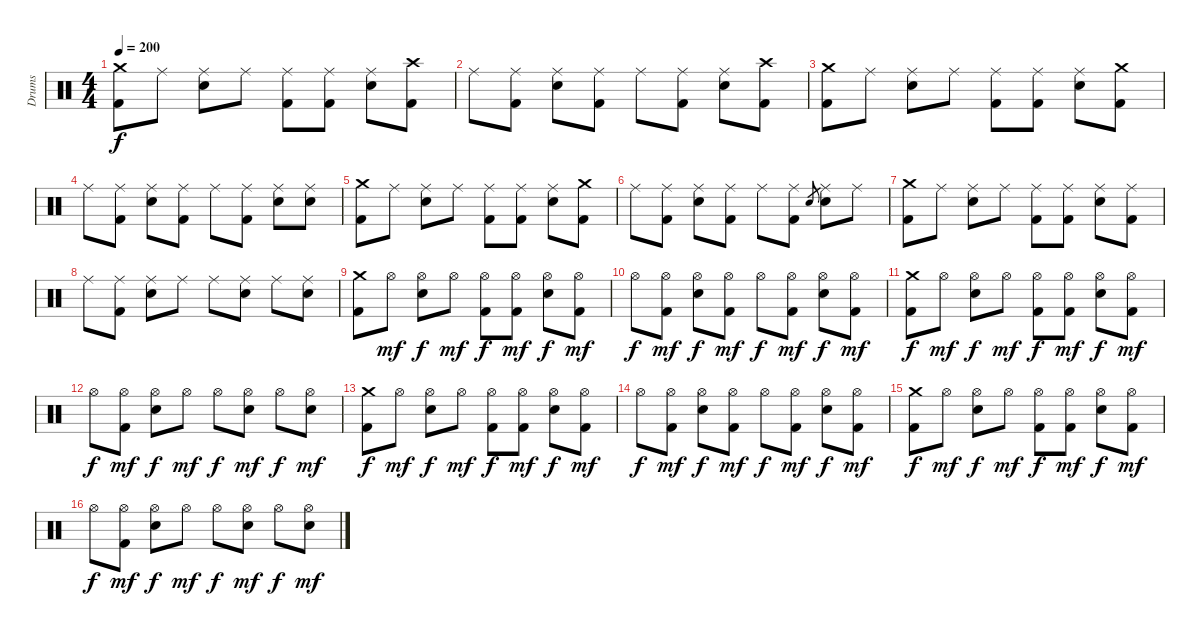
\track ("Drums" "Drums") {instrument percussion}
\staff {score}
\articulation defaults
\ts (4 4)
\tempo 200
\clef neutral
\ks c
("Crash medium (hit)" "Kick (hit) 2").8{dy f} "Ride (middle)".8 ("Ride (middle)" "Electric Snare (hit)").8 "Ride (middle)".8 ("Ride (middle)" "Kick (hit) 2").8 ("Ride (middle)" "Kick (hit) 2").8 ("Ride (middle)" "Electric Snare (hit)").8 ("Crash high (hit)" "Kick (hit) 2").8 |
"Ride (middle)".8 ("Ride (middle)" "Kick (hit) 2").8 ("Ride (middle)" "Electric Snare (hit)").8 ("Ride (middle)" "Kick (hit) 2").8 "Ride (middle)".8 ("Ride (middle)" "Kick (hit) 2").8 ("Ride (middle)" "Electric Snare (hit)").8 ("Crash high (hit)" "Kick (hit) 2").8 |
("Crash medium (hit)" "Kick (hit) 2").8 "Ride (middle)".8 ("Ride (middle)" "Electric Snare (hit)").8 "Ride (middle)".8 ("Ride (middle)" "Kick (hit) 2").8 ("Ride (middle)" "Kick (hit) 2").8 ("Ride (middle)" "Electric Snare (hit)").8 ("Crash medium (hit)" "Kick (hit) 2").8 |
"Ride (middle)".8 ("Ride (middle)" "Kick (hit) 2").8 ("Ride (middle)" "Electric Snare (hit)").8 ("Ride (middle)" "Kick (hit) 2").8 "Ride (middle)".8 ("Ride (middle)" "Kick (hit) 2").8 ("Ride (middle)" "Electric Snare (hit)").8 ("Ride (middle)" "Electric Snare (hit)").8 |
("Crash medium (hit)" "Kick (hit) 2").8 "Ride (middle)".8 ("Ride (middle)" "Electric Snare (hit)").8 "Ride (middle)".8 ("Ride (middle)" "Kick (hit) 2").8 ("Ride (middle)" "Kick (hit) 2").8 ("Ride (middle)" "Electric Snare (hit)").8 ("Crash medium (hit)" "Kick (hit) 2").8 |
"Ride (middle)".8 ("Ride (middle)" "Kick (hit) 2").8 ("Ride (middle)" "Electric Snare (hit)").8 ("Ride (middle)" "Kick (hit) 2").8 "Ride (middle)".8 ("Ride (middle)" "Kick (hit) 2").8 "Electric Snare (hit)".8{gr} ("Ride (middle)" "Electric Snare (hit)").8 "Ride (middle)".8 |
("Crash medium (hit)" "Kick (hit) 2").8 "Ride (middle)".8 ("Ride (middle)" "Electric Snare (hit)").8 "Ride (middle)".8 ("Ride (middle)" "Kick (hit) 2").8 ("Ride (middle)" "Kick (hit) 2").8 ("Ride (middle)" "Electric Snare (hit)").8 ("Ride (middle)" "Kick (hit) 2").8 |
"Ride (middle)".8 ("Ride (middle)" "Kick (hit) 2").8 ("Ride (middle)" "Electric Snare (hit)").8 "Ride (middle)".8 "Ride (middle)".8 ("Ride (middle)" "Electric Snare (hit)").8 "Ride (middle)".8 ("Ride (middle)" "Electric Snare (hit)").8 |
("Crash medium (hit)" "Kick (hit) 2").8 "Hi-Hat (open)".8{dy mf} ("Hi-Hat (open)" "Electric Snare (hit)").8{dy f} "Hi-Hat (open)".8{dy mf} ("Hi-Hat (open)" "Kick (hit) 2").8{dy f} ("Hi-Hat (open)" "Kick (hit) 2").8{dy mf} ("Hi-Hat (open)" "Electric Snare (hit)").8{dy f} ("Hi-Hat (open)" "Kick (hit) 2").8{dy mf} |
"Hi-Hat (open)".8{dy f} ("Hi-Hat (open)" "Kick (hit) 2").8{dy mf} ("Hi-Hat (open)" "Electric Snare (hit)").8{dy f} ("Hi-Hat (open)" "Kick (hit) 2").8{dy mf} "Hi-Hat (open)".8{dy f} ("Hi-Hat (open)" "Kick (hit) 2").8{dy mf} ("Hi-Hat (open)" "Electric Snare (hit)").8{dy f} ("Hi-Hat (open)" "Kick (hit) 2").8{dy mf} |
("Crash medium (hit)" "Kick (hit) 2").8{dy f} "Hi-Hat (open)".8{dy mf} ("Hi-Hat (open)" "Electric Snare (hit)").8{dy f} "Hi-Hat (open)".8{dy mf} ("Hi-Hat (open)" "Kick (hit) 2").8{dy f} ("Hi-Hat (open)" "Kick (hit) 2").8{dy mf} ("Hi-Hat (open)" "Electric Snare (hit)").8{dy f} ("Hi-Hat (open)" "Kick (hit) 2").8{dy mf} |
"Hi-Hat (open)".8{dy f} ("Hi-Hat (open)" "Kick (hit) 2").8{dy mf} ("Hi-Hat (open)" "Electric Snare (hit)").8{dy f} "Hi-Hat (open)".8{dy mf} "Hi-Hat (open)".8{dy f} ("Hi-Hat (open)" "Electric Snare (hit)").8{dy mf} "Hi-Hat (open)".8{dy f} ("Hi-Hat (open)" "Electric Snare (hit)").8{dy mf} |
("Crash medium (hit)" "Kick (hit) 2").8{dy f} "Hi-Hat (open)".8{dy mf} ("Hi-Hat (open)" "Electric Snare (hit)").8{dy f} "Hi-Hat (open)".8{dy mf} ("Hi-Hat (open)" "Kick (hit) 2").8{dy f} ("Hi-Hat (open)" "Kick (hit) 2").8{dy mf} ("Hi-Hat (open)" "Electric Snare (hit)").8{dy f} ("Hi-Hat (open)" "Kick (hit) 2").8{dy mf} |
"Hi-Hat (open)".8{dy f} ("Hi-Hat (open)" "Kick (hit) 2").8{dy mf} ("Hi-Hat (open)" "Electric Snare (hit)").8{dy f} ("Hi-Hat (open)" "Kick (hit) 2").8{dy mf} "Hi-Hat (open)".8{dy f} ("Hi-Hat (open)" "Kick (hit) 2").8{dy mf} ("Hi-Hat (open)" "Electric Snare (hit)").8{dy f} ("Hi-Hat (open)" "Kick (hit) 2").8{dy mf} |
("Crash medium (hit)" "Kick (hit) 2").8{dy f} "Hi-Hat (open)".8{dy mf} ("Hi-Hat (open)" "Electric Snare (hit)").8{dy f} "Hi-Hat (open)".8{dy mf} ("Hi-Hat (open)" "Kick (hit) 2").8{dy f} ("Hi-Hat (open)" "Kick (hit) 2").8{dy mf} ("Hi-Hat (open)" "Electric Snare (hit)").8{dy f} ("Hi-Hat (open)" "Kick (hit) 2").8{dy mf} |
"Hi-Hat (open)".8{dy f} ("Hi-Hat (open)" "Kick (hit) 2").8{dy mf} ("Hi-Hat (open)" "Electric Snare (hit)").8{dy f} "Hi-Hat (open)".8{dy mf} "Hi-Hat (open)".8{dy f} ("Hi-Hat (open)" "Electric Snare (hit)").8{dy mf} "Hi-Hat (open)".8{dy f} ("Hi-Hat (open)" "Electric Snare (hit)").8{dy mf}
